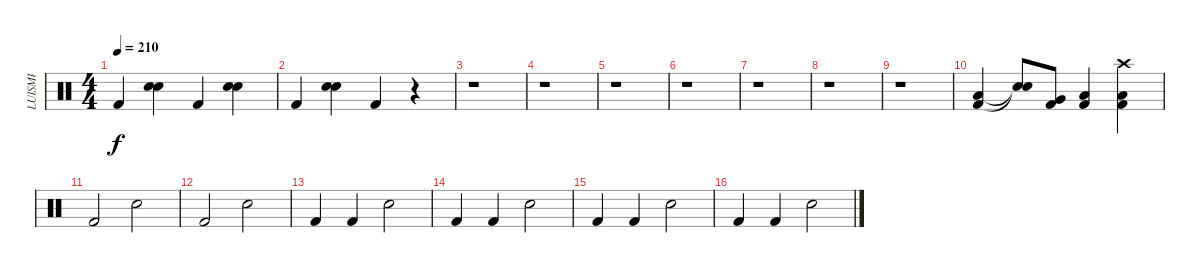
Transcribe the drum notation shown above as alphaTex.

\track ("LUISMI" "LUISMI") {instrument percussion}
\staff {score}
\articulation defaults
\ts (4 4)
\tempo 210
\clef neutral
\ks c "Kick (hit) 2".4{dy f}
("Snare (hit) 2" "Electric Snare (hit)").4 "Kick (hit) 2".4 ("Electric Snare (hit)" "Snare (hit) 2").4 |
"Kick (hit) 2".4 ("Snare (hit) 2" "Electric Snare (hit)").4 "Kick (hit) 2".4 r.4 |
r.1 |
r.1 |
r.1 |
r.1 |
r.1 |
r.1 |
r.1 |
("Low Tom (hit)" "Kick (hit) 2").4 ("Snare (hit)"{t} "Snare (hit)"{t}).8 ("Very Low Tom (hit)" "Kick (hit) 2").8 ("Low Floor Tom (hit)" "Kick (hit) 2").4 ("Crash high (hit)" "Low Floor Tom (hit)" "Kick (hit) 2").4 |
"Kick (hit) 2".2 "Snare (hit) 2".2 |
"Kick (hit) 2".2 "Snare (hit) 2".2 |
"Kick (hit) 2".4 "Kick (hit) 2".4 "Snare (hit) 2".2 |
"Kick (hit) 2".4 "Kick (hit) 2".4 "Snare (hit) 2".2 |
"Kick (hit) 2".4 "Kick (hit) 2".4 "Snare (hit) 2".2 |
"Kick (hit) 2".4 "Kick (hit) 2".4 "Snare (hit) 2".2
